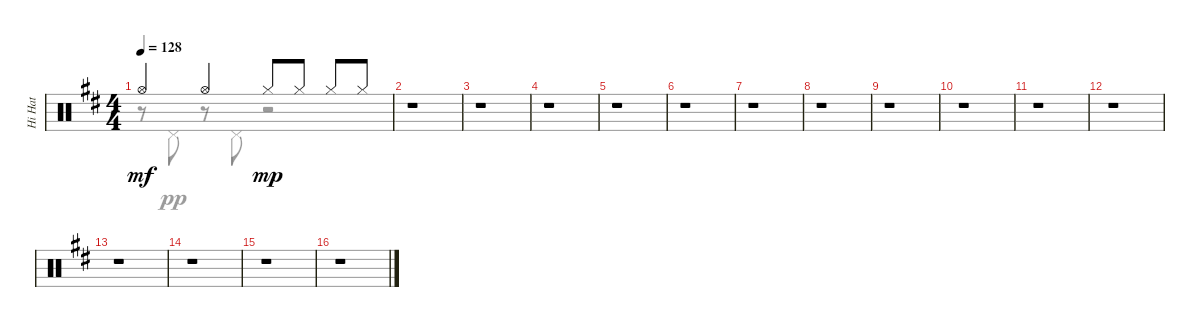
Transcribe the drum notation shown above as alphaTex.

\track ("Hi Hat" "Hi Hat") {instrument percussion}
\staff {score}
\articulation defaults
\voice
\ts (4 4)
\tempo 128
\clef neutral
\ks bminor "Hi-Hat (open)".4{dy mf} "Hi-Hat (open)".4 "Hi-Hat (closed)".8{dy mp} "Hi-Hat (closed)".8 "Hi-Hat (closed)".8 "Hi-Hat (closed)".8
|
r.1 |
r.1 |
r.1 |
r.1 |
r.1 |
r.1 |
r.1 |
r.1 |
r.1 |
r.1 |
r.1 |
r.1 |
r.1 |
r.1 |
r.1
\voice
\clef neutral
\ottava regular
\simile none
\ks bminor
r.8{dy pp} "Pedal Hi-Hat (hit)".8 r.8 "Pedal Hi-Hat (hit)".8 r.2 |
|
|
|
|
|
|
|
|
|
|
|
|
|
|
